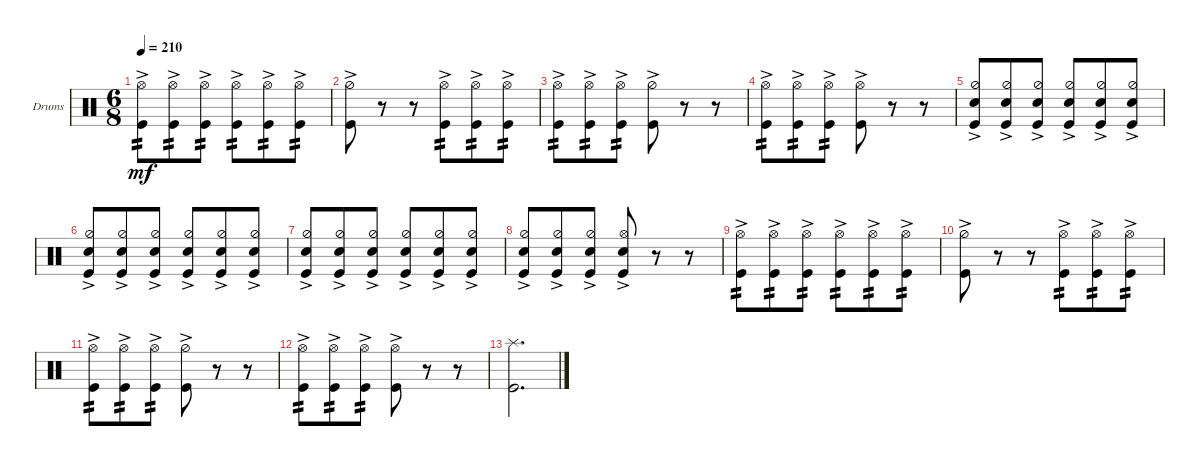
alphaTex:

\bracketExtendMode groupsimilarinstruments
\firstSystemTrackNameOrientation horizontal
\otherSystemsTrackNameOrientation horizontal
\track ("Drumkit" "Drums") {instrument percussion}
\staff {score}
\articulation defaults
\ts (6 8)
\tempo 210
\clef neutral
\ks c
("Kick (hit)"{ac} "Hi-Hat (open)"{ac}).8{tp 2 dy mf} ("Kick (hit)"{ac} "Hi-Hat (open)"{ac}).8{tp 2} ("Kick (hit)"{ac} "Hi-Hat (open)"{ac}).8{tp 2} ("Kick (hit)"{ac} "Hi-Hat (open)"{ac}).8{tp 2} ("Kick (hit)"{ac} "Hi-Hat (open)"{ac}).8{tp 2} ("Kick (hit)"{ac} "Hi-Hat (open)"{ac}).8{tp 2} |
("Kick (hit)"{ac} "Hi-Hat (half)"{ac}).8 r.8 r.8 ("Kick (hit)"{ac} "Hi-Hat (open)"{ac}).8{tp 2} ("Kick (hit)"{ac} "Hi-Hat (open)"{ac}).8{tp 2} ("Kick (hit)"{ac} "Hi-Hat (open)"{ac}).8{tp 2} |
("Kick (hit)"{ac} "Hi-Hat (open)"{ac}).8{tp 2} ("Kick (hit)"{ac} "Hi-Hat (open)"{ac}).8{tp 2} ("Kick (hit)"{ac} "Hi-Hat (open)"{ac}).8{tp 2} ("Kick (hit)"{ac} "Hi-Hat (half)"{ac}).8 r.8 r.8 |
("Kick (hit)"{ac} "Hi-Hat (open)"{ac}).8{tp 2} ("Kick (hit)"{ac} "Hi-Hat (open)"{ac}).8{tp 2} ("Kick (hit)"{ac} "Hi-Hat (open)"{ac}).8{tp 2} ("Kick (hit)"{ac} "Hi-Hat (open)"{ac}).8 r.8 r.8 |
("Snare (hit) 2"{ac} "Hi-Hat (half)"{ac} "Kick (hit)"{ac}).8 ("Snare (hit) 2"{ac} "Hi-Hat (half)"{ac} "Kick (hit)"{ac}).8 ("Snare (hit) 2"{ac} "Hi-Hat (half)"{ac} "Kick (hit)"{ac}).8 ("Snare (hit) 2"{ac} "Hi-Hat (half)"{ac} "Kick (hit)"{ac}).8 ("Snare (hit) 2"{ac} "Hi-Hat (half)"{ac} "Kick (hit)"{ac}).8 ("Snare (hit) 2"{ac} "Hi-Hat (half)"{ac} "Kick (hit)"{ac}).8 |
("Snare (hit) 2"{ac} "Hi-Hat (half)"{ac} "Kick (hit)"{ac}).8 ("Snare (hit) 2"{ac} "Hi-Hat (half)"{ac} "Kick (hit)"{ac}).8 ("Snare (hit) 2"{ac} "Hi-Hat (half)"{ac} "Kick (hit)"{ac}).8 ("Snare (hit) 2"{ac} "Hi-Hat (half)"{ac} "Kick (hit)"{ac}).8 ("Snare (hit) 2"{ac} "Hi-Hat (half)"{ac} "Kick (hit)"{ac}).8 ("Snare (hit) 2"{ac} "Hi-Hat (half)"{ac} "Kick (hit)"{ac}).8 |
("Snare (hit) 2"{ac} "Hi-Hat (half)"{ac} "Kick (hit)"{ac}).8 ("Snare (hit) 2"{ac} "Hi-Hat (half)"{ac} "Kick (hit)"{ac}).8 ("Snare (hit) 2"{ac} "Hi-Hat (half)"{ac} "Kick (hit)"{ac}).8 ("Snare (hit) 2"{ac} "Hi-Hat (half)"{ac} "Kick (hit)"{ac}).8 ("Snare (hit) 2"{ac} "Hi-Hat (half)"{ac} "Kick (hit)"{ac}).8 ("Snare (hit) 2"{ac} "Hi-Hat (half)"{ac} "Kick (hit)"{ac}).8 |
("Snare (hit) 2"{ac} "Hi-Hat (half)"{ac} "Kick (hit)"{ac}).8 ("Snare (hit) 2"{ac} "Hi-Hat (half)"{ac} "Kick (hit)"{ac}).8 ("Snare (hit) 2"{ac} "Hi-Hat (half)"{ac} "Kick (hit)"{ac}).8 ("Snare (hit) 2"{ac} "Hi-Hat (open)"{ac} "Kick (hit)"{ac}).8 r.8 r.8 |
("Kick (hit)"{ac} "Hi-Hat (open)"{ac}).8{tp 2} ("Kick (hit)"{ac} "Hi-Hat (open)"{ac}).8{tp 2} ("Kick (hit)"{ac} "Hi-Hat (open)"{ac}).8{tp 2} ("Kick (hit)"{ac} "Hi-Hat (open)"{ac}).8{tp 2} ("Kick (hit)"{ac} "Hi-Hat (open)"{ac}).8{tp 2} ("Kick (hit)"{ac} "Hi-Hat (open)"{ac}).8{tp 2} |
("Kick (hit)"{ac} "Hi-Hat (half)"{ac}).8 r.8 r.8 ("Kick (hit)"{ac} "Hi-Hat (open)"{ac}).8{tp 2} ("Kick (hit)"{ac} "Hi-Hat (open)"{ac}).8{tp 2} ("Kick (hit)"{ac} "Hi-Hat (open)"{ac}).8{tp 2} |
("Kick (hit)"{ac} "Hi-Hat (open)"{ac}).8{tp 2} ("Kick (hit)"{ac} "Hi-Hat (open)"{ac}).8{tp 2} ("Kick (hit)"{ac} "Hi-Hat (open)"{ac}).8{tp 2} ("Kick (hit)"{ac} "Hi-Hat (half)"{ac}).8 r.8 r.8 |
("Kick (hit)"{ac} "Hi-Hat (open)"{ac}).8{tp 2} ("Kick (hit)"{ac} "Hi-Hat (open)"{ac}).8{tp 2} ("Kick (hit)"{ac} "Hi-Hat (open)"{ac}).8{tp 2} ("Kick (hit)"{ac} "Hi-Hat (open)"{ac}).8 r.8 r.8 |
("Kick (hit)" "Splash (hit)").2{d}
